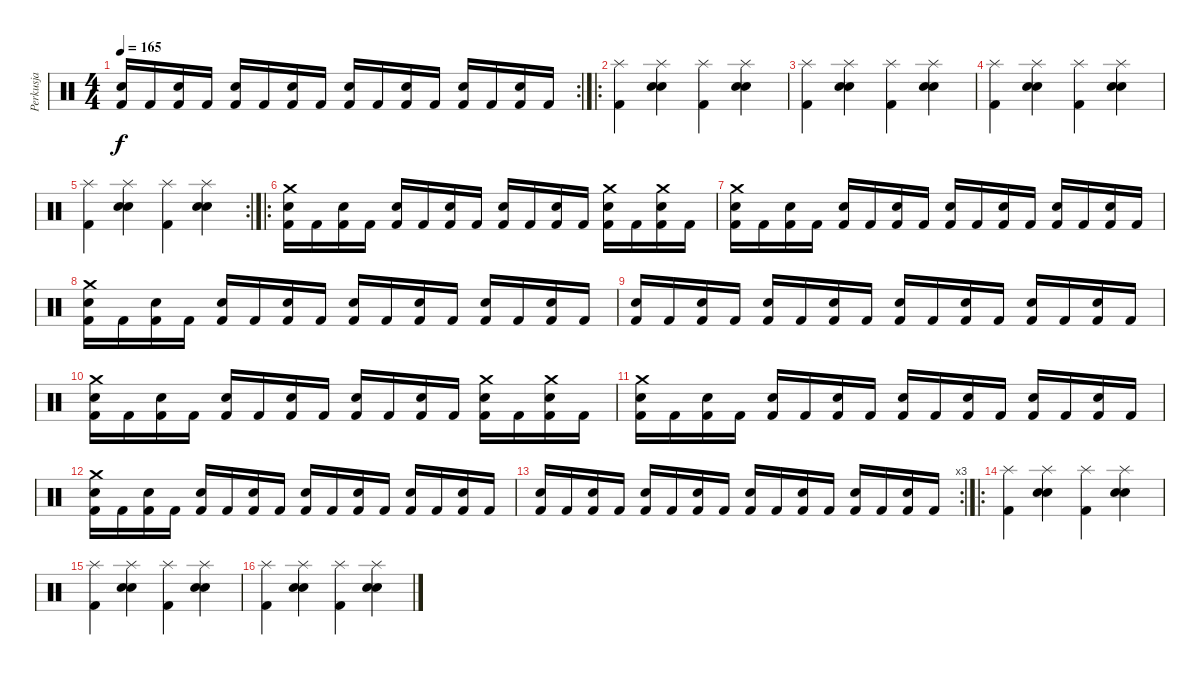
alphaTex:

\track ("Perkusja" "Perkusja") {instrument percussion}
\staff {score}
\articulation defaults
\rc 2
\ts (4 4)
\tempo 165
\clef neutral
\ks c
("Snare (hit) 2" "Kick (hit) 2").16{dy f} "Kick (hit) 2".16 ("Snare (hit) 2" "Kick (hit) 2").16 "Kick (hit) 2".16 ("Snare (hit) 2" "Kick (hit) 2").16 "Kick (hit) 2".16 ("Snare (hit) 2" "Kick (hit) 2").16 "Kick (hit) 2".16 ("Snare (hit) 2" "Kick (hit) 2").16 "Kick (hit) 2".16 ("Snare (hit) 2" "Kick (hit) 2").16 "Kick (hit) 2".16 ("Snare (hit) 2" "Kick (hit) 2").16 "Kick (hit) 2".16 ("Snare (hit) 2" "Kick (hit) 2").16 "Kick (hit) 2".16 |
\ro
("Splash (hit)" "Kick (hit) 2").4 ("Splash (hit)" "Snare (hit) 2" "Snare (hit) 2").4 ("Splash (hit)" "Kick (hit) 2").4 ("Splash (hit)" "Snare (hit) 2" "Snare (hit) 2").4 |
("Splash (hit)" "Kick (hit) 2").4 ("Splash (hit)" "Snare (hit) 2" "Snare (hit) 2").4 ("Splash (hit)" "Kick (hit) 2").4 ("Splash (hit)" "Snare (hit) 2" "Snare (hit) 2").4 |
("Splash (hit)" "Kick (hit) 2").4 ("Splash (hit)" "Snare (hit) 2" "Snare (hit) 2").4 ("Splash (hit)" "Kick (hit) 2").4 ("Splash (hit)" "Snare (hit) 2" "Snare (hit) 2").4 |
\rc 2
("Splash (hit)" "Kick (hit) 2").4 ("Splash (hit)" "Snare (hit) 2" "Snare (hit) 2").4 ("Splash (hit)" "Kick (hit) 2").4 ("Splash (hit)" "Snare (hit) 2" "Snare (hit) 2").4 |
\ro
("Crash medium (hit)" "Snare (hit) 2" "Kick (hit) 2").16 "Kick (hit) 2".16 ("Snare (hit) 2" "Kick (hit) 2").16 "Kick (hit) 2".16 ("Snare (hit) 2" "Kick (hit) 2").16 "Kick (hit) 2".16 ("Snare (hit) 2" "Kick (hit) 2").16 "Kick (hit) 2".16 ("Snare (hit) 2" "Kick (hit) 2").16 "Kick (hit) 2".16 ("Snare (hit) 2" "Kick (hit) 2").16 "Kick (hit) 2".16 ("Crash medium (hit)" "Snare (hit) 2" "Kick (hit) 2").16 "Kick (hit) 2".16 ("Crash medium (hit)" "Snare (hit) 2" "Kick (hit) 2").16 "Kick (hit) 2".16 |
("Crash medium (hit)" "Snare (hit) 2" "Kick (hit) 2").16 "Kick (hit) 2".16 ("Snare (hit) 2" "Kick (hit) 2").16 "Kick (hit) 2".16 ("Snare (hit) 2" "Kick (hit) 2").16 "Kick (hit) 2".16 ("Snare (hit) 2" "Kick (hit) 2").16 "Kick (hit) 2".16 ("Snare (hit) 2" "Kick (hit) 2").16 "Kick (hit) 2".16 ("Snare (hit) 2" "Kick (hit) 2").16 "Kick (hit) 2".16 ("Snare (hit) 2" "Kick (hit) 2").16 "Kick (hit) 2".16 ("Snare (hit) 2" "Kick (hit) 2").16 "Kick (hit) 2".16 |
("Crash medium (hit)" "Snare (hit) 2" "Kick (hit) 2").16 "Kick (hit) 2".16 ("Snare (hit) 2" "Kick (hit) 2").16 "Kick (hit) 2".16 ("Snare (hit) 2" "Kick (hit) 2").16 "Kick (hit) 2".16 ("Snare (hit) 2" "Kick (hit) 2").16 "Kick (hit) 2".16 ("Snare (hit) 2" "Kick (hit) 2").16 "Kick (hit) 2".16 ("Snare (hit) 2" "Kick (hit) 2").16 "Kick (hit) 2".16 ("Snare (hit) 2" "Kick (hit) 2").16 "Kick (hit) 2".16 ("Snare (hit) 2" "Kick (hit) 2").16 "Kick (hit) 2".16 |
("Snare (hit) 2" "Kick (hit) 2").16 "Kick (hit) 2".16 ("Snare (hit) 2" "Kick (hit) 2").16 "Kick (hit) 2".16 ("Snare (hit) 2" "Kick (hit) 2").16 "Kick (hit) 2".16 ("Snare (hit) 2" "Kick (hit) 2").16 "Kick (hit) 2".16 ("Snare (hit) 2" "Kick (hit) 2").16 "Kick (hit) 2".16 ("Snare (hit) 2" "Kick (hit) 2").16 "Kick (hit) 2".16 ("Snare (hit) 2" "Kick (hit) 2").16 "Kick (hit) 2".16 ("Snare (hit) 2" "Kick (hit) 2").16 "Kick (hit) 2".16 |
("Crash medium (hit)" "Snare (hit) 2" "Kick (hit) 2").16 "Kick (hit) 2".16 ("Snare (hit) 2" "Kick (hit) 2").16 "Kick (hit) 2".16 ("Snare (hit) 2" "Kick (hit) 2").16 "Kick (hit) 2".16 ("Snare (hit) 2" "Kick (hit) 2").16 "Kick (hit) 2".16 ("Snare (hit) 2" "Kick (hit) 2").16 "Kick (hit) 2".16 ("Snare (hit) 2" "Kick (hit) 2").16 "Kick (hit) 2".16 ("Crash medium (hit)" "Snare (hit) 2" "Kick (hit) 2").16 "Kick (hit) 2".16 ("Crash medium (hit)" "Snare (hit) 2" "Kick (hit) 2").16 "Kick (hit) 2".16 |
("Crash medium (hit)" "Snare (hit) 2" "Kick (hit) 2").16 "Kick (hit) 2".16 ("Snare (hit) 2" "Kick (hit) 2").16 "Kick (hit) 2".16 ("Snare (hit) 2" "Kick (hit) 2").16 "Kick (hit) 2".16 ("Snare (hit) 2" "Kick (hit) 2").16 "Kick (hit) 2".16 ("Snare (hit) 2" "Kick (hit) 2").16 "Kick (hit) 2".16 ("Snare (hit) 2" "Kick (hit) 2").16 "Kick (hit) 2".16 ("Snare (hit) 2" "Kick (hit) 2").16 "Kick (hit) 2".16 ("Snare (hit) 2" "Kick (hit) 2").16 "Kick (hit) 2".16 |
("Crash medium (hit)" "Snare (hit) 2" "Kick (hit) 2").16 "Kick (hit) 2".16 ("Snare (hit) 2" "Kick (hit) 2").16 "Kick (hit) 2".16 ("Snare (hit) 2" "Kick (hit) 2").16 "Kick (hit) 2".16 ("Snare (hit) 2" "Kick (hit) 2").16 "Kick (hit) 2".16 ("Snare (hit) 2" "Kick (hit) 2").16 "Kick (hit) 2".16 ("Snare (hit) 2" "Kick (hit) 2").16 "Kick (hit) 2".16 ("Snare (hit) 2" "Kick (hit) 2").16 "Kick (hit) 2".16 ("Snare (hit) 2" "Kick (hit) 2").16 "Kick (hit) 2".16 |
\rc 3
("Snare (hit) 2" "Kick (hit) 2").16 "Kick (hit) 2".16 ("Snare (hit) 2" "Kick (hit) 2").16 "Kick (hit) 2".16 ("Snare (hit) 2" "Kick (hit) 2").16 "Kick (hit) 2".16 ("Snare (hit) 2" "Kick (hit) 2").16 "Kick (hit) 2".16 ("Snare (hit) 2" "Kick (hit) 2").16 "Kick (hit) 2".16 ("Snare (hit) 2" "Kick (hit) 2").16 "Kick (hit) 2".16 ("Snare (hit) 2" "Kick (hit) 2").16 "Kick (hit) 2".16 ("Snare (hit) 2" "Kick (hit) 2").16 "Kick (hit) 2".16 |
\ro
("Splash (hit)" "Kick (hit) 2").4 ("Splash (hit)" "Snare (hit) 2" "Snare (hit) 2").4 ("Splash (hit)" "Kick (hit) 2").4 ("Splash (hit)" "Snare (hit) 2" "Snare (hit) 2").4 |
("Splash (hit)" "Kick (hit) 2").4 ("Splash (hit)" "Snare (hit) 2" "Snare (hit) 2").4 ("Splash (hit)" "Kick (hit) 2").4 ("Splash (hit)" "Snare (hit) 2" "Snare (hit) 2").4 |
("Splash (hit)" "Kick (hit) 2").4 ("Splash (hit)" "Snare (hit) 2" "Snare (hit) 2").4 ("Splash (hit)" "Kick (hit) 2").4 ("Splash (hit)" "Snare (hit) 2" "Snare (hit) 2").4
